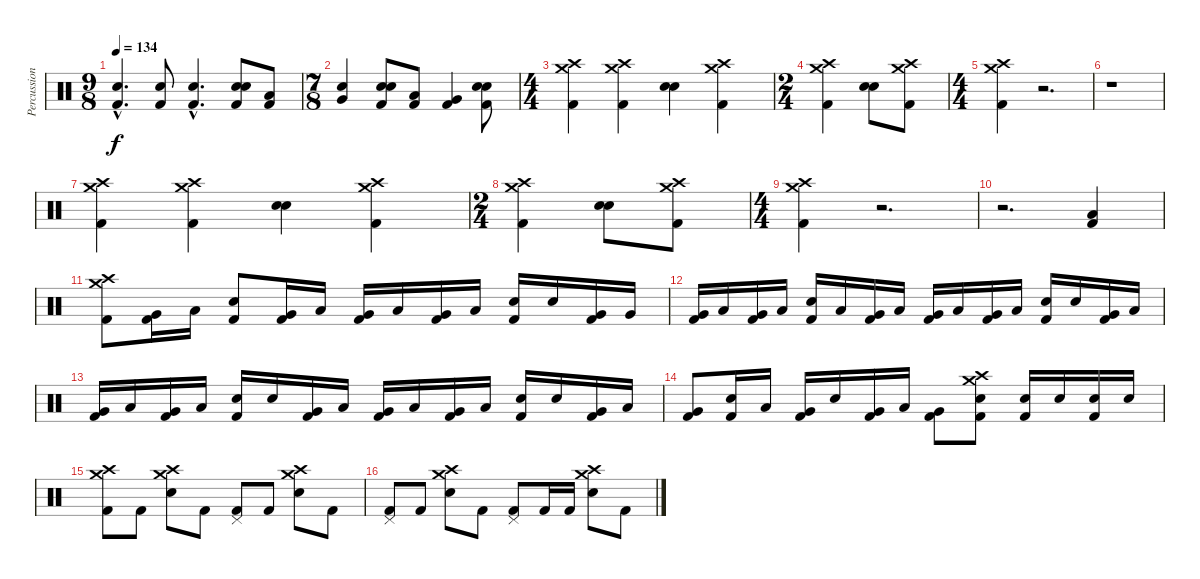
\track ("Percussion" "Percussion") {instrument percussion}
\staff {score}
\articulation defaults
\ts (9 8)
\tempo 134
\clef neutral
\ks c
("Snare (hit) 2"{hac} "Kick (hit) 2"{hac}).4{d dy f} ("Snare (hit) 2" "Kick (hit) 2").8 ("Snare (hit) 2"{hac} "Kick (hit) 2"{hac}).4{d} ("Snare (hit) 2" "Electric Snare (hit)" "Kick (hit) 2").8 ("Low Tom (hit)" "Kick (hit) 2").8 |
\ts (7 8)
("Very Low Tom (hit)" "Snare (hit) 2").4 ("Snare (hit) 2" "Electric Snare (hit)" "Kick (hit) 2").8 ("Low Tom (hit)" "Kick (hit) 2").8 ("Very Low Tom (hit)" "Kick (hit) 2").4 ("Snare (hit) 2" "Electric Snare (hit)" "Kick (hit) 2").8 |
\ts (4 4)
("Crash high (hit)" "Crash medium (hit)" "Kick (hit) 2").4 ("Crash high (hit)" "Crash medium (hit)" "Kick (hit) 2").4 ("Snare (hit) 2" "Electric Snare (hit)").4 ("Crash high (hit)" "Crash medium (hit)" "Kick (hit) 2").4 |
\ts (2 4)
("Crash high (hit)" "Crash medium (hit)" "Kick (hit) 2").4 ("Snare (hit) 2" "Electric Snare (hit)").8 ("Crash medium (hit)" "Crash high (hit)" "Kick (hit) 2").8 |
\ts (4 4)
("Crash high (hit)" "Crash medium (hit)" "Kick (hit) 2").4 r.2{d} |
r.1 |
("Crash high (hit)" "Crash medium (hit)" "Kick (hit) 2").4 ("Crash high (hit)" "Crash medium (hit)" "Kick (hit) 2").4 ("Snare (hit) 2" "Electric Snare (hit)").4 ("Crash high (hit)" "Crash medium (hit)" "Kick (hit) 2").4 |
\ts (2 4)
("Crash high (hit)" "Crash medium (hit)" "Kick (hit) 2").4 ("Snare (hit) 2" "Electric Snare (hit)").8 ("Crash high (hit)" "Crash medium (hit)" "Kick (hit) 2").8 |
\ts (4 4)
("Crash high (hit)" "Crash medium (hit)" "Kick (hit) 2").4 r.2{d} |
r.2{d} ("Low Floor Tom (hit)" "Kick (hit) 2").4 |
("Crash high (hit)" "Crash medium (hit)" "Kick (hit) 2").8 ("Very Low Tom (hit)" "Kick (hit) 2").16 "Low Floor Tom (hit)".16 ("Snare (hit) 2" "Kick (hit) 2").8 ("Very Low Tom (hit)" "Kick (hit) 2").16 "Low Tom (hit)".16 ("Very Low Tom (hit)" "Kick (hit) 2").16 "Low Tom (hit)".16 ("Very Low Tom (hit)" "Kick (hit) 2").16 "Low Tom (hit)".16 ("Snare (hit) 2" "Kick (hit) 2").16 "Snare (hit) 2".16 ("Very Low Tom (hit)" "Kick (hit) 2").16 "Very Low Tom (hit)".16 |
("Very Low Tom (hit)" "Kick (hit) 2").16 "Low Tom (hit)".16 ("Very Low Tom (hit)" "Kick (hit) 2").16 "Low Tom (hit)".16 ("Snare (hit) 2" "Kick (hit) 2").16 "Low Tom (hit)".16 ("Very Low Tom (hit)" "Kick (hit) 2").16 "Low Tom (hit)".16 ("Very Low Tom (hit)" "Kick (hit) 2").16 "Low Tom (hit)".16 ("Very Low Tom (hit)" "Kick (hit) 2").16 "Low Tom (hit)".16 ("Snare (hit) 2" "Kick (hit) 2").16 "Snare (hit) 2".16 ("Very Low Tom (hit)" "Kick (hit) 2").16 "Low Tom (hit)".16 |
("Very Low Tom (hit)" "Kick (hit) 2").16 "Low Tom (hit)".16 ("Very Low Tom (hit)" "Kick (hit) 2").16 "Low Tom (hit)".16 ("Snare (hit) 2" "Kick (hit) 2").16 "Snare (hit) 2".16 ("Very Low Tom (hit)" "Kick (hit) 2").16 "Low Tom (hit)".16 ("Very Low Tom (hit)" "Kick (hit) 2").16 "Low Tom (hit)".16 ("Very Low Tom (hit)" "Kick (hit) 2").16 "Low Tom (hit)".16 ("Snare (hit) 2" "Kick (hit) 2").16 "Snare (hit) 2".16 ("Very Low Tom (hit)" "Kick (hit) 2").16 "Low Tom (hit)".16 |
("Very Low Tom (hit)" "Kick (hit) 2").8 ("Snare (hit) 2" "Kick (hit) 2").16 "Low Tom (hit)".16 ("Very Low Tom (hit)" "Kick (hit) 2").16 "Snare (hit) 2".16 ("Very Low Tom (hit)" "Kick (hit) 2").16 "Low Tom (hit)".16 ("Very Low Tom (hit)" "Kick (hit) 2").8 ("Crash high (hit)" "Crash medium (hit)" "Snare (hit) 2" "Kick (hit) 2").8 ("Snare (hit) 2" "Kick (hit) 2").16 "Snare (hit) 2".16 ("Snare (hit) 2" "Kick (hit) 2").16 "Snare (hit) 2".16 |
("Crash high (hit)" "Crash medium (hit)" "Kick (hit) 2").8 "Kick (hit) 2".8 ("Crash high (hit)" "Crash medium (hit)" "Snare (hit) 2").8 "Kick (hit) 2".8 ("Pedal Hi-Hat (hit)" "Kick (hit) 2").8 "Kick (hit) 2".8 ("Crash high (hit)" "Crash medium (hit)" "Snare (hit) 2").8 "Kick (hit) 2".8 |
("Pedal Hi-Hat (hit)" "Kick (hit) 2").8 "Kick (hit) 2".8 ("Crash high (hit)" "Crash medium (hit)" "Snare (hit) 2").8 "Kick (hit) 2".8 ("Pedal Hi-Hat (hit)" "Kick (hit) 2").8 "Kick (hit) 2".16 "Kick (hit) 2".16 ("Crash high (hit)" "Crash medium (hit)" "Snare (hit) 2").8 "Kick (hit) 2".8
